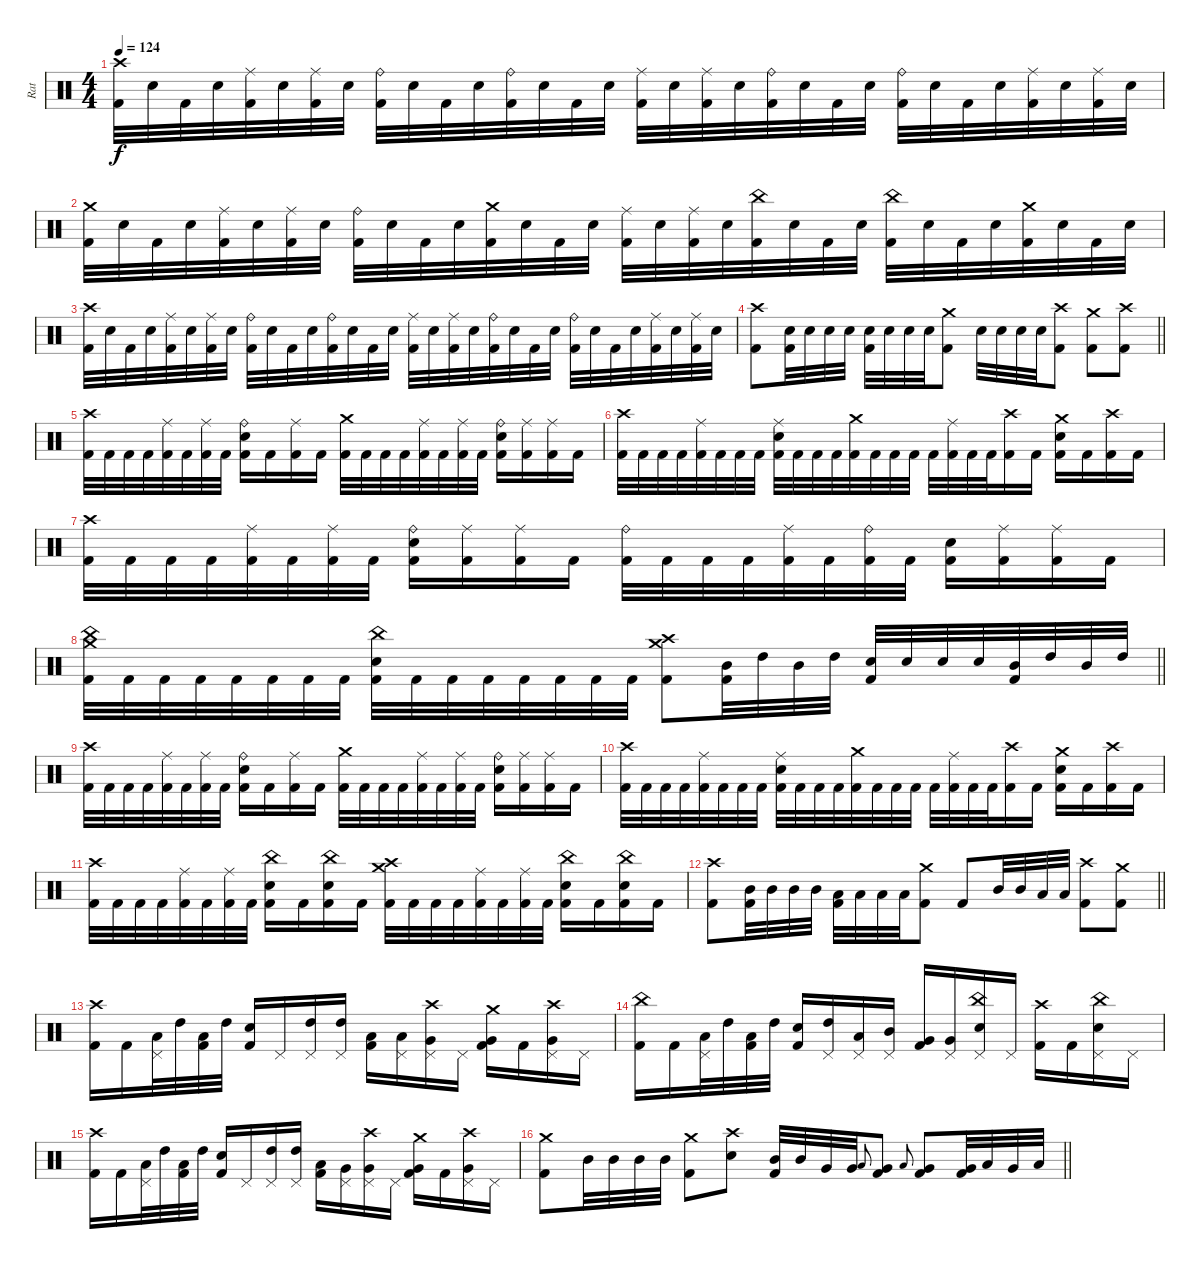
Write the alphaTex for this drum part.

\track ("Rat" "Rat") {instrument percussion}
\staff {score}
\articulation defaults
\ts (4 4)
\tempo 124
\clef neutral
\ks c
("Crash high (hit)" "Kick (hit) 2").32{dy f} "Electric Snare (hit)".32 "Kick (hit) 2".32 "Electric Snare (hit)".32 ("Ride (middle)" "Kick (hit) 2").32 "Electric Snare (hit)".32 ("Ride (middle)" "Kick (hit) 2").32 "Electric Snare (hit)".32 ("Ride (bell)" "Kick (hit) 2").32 "Electric Snare (hit)".32 "Kick (hit) 2".32 "Electric Snare (hit)".32 ("Ride (bell)" "Kick (hit) 2").32 "Electric Snare (hit)".32 "Kick (hit) 2".32 "Electric Snare (hit)".32 ("Ride (middle)" "Kick (hit) 2").32 "Electric Snare (hit)".32 ("Ride (middle)" "Kick (hit) 2").32 "Electric Snare (hit)".32 ("Ride (bell)" "Kick (hit) 2").32 "Electric Snare (hit)".32 "Kick (hit) 2".32 "Electric Snare (hit)".32 ("Ride (bell)" "Kick (hit) 2").32 "Electric Snare (hit)".32 "Kick (hit) 2".32 "Electric Snare (hit)".32 ("Ride (middle)" "Kick (hit) 2").32 "Electric Snare (hit)".32 ("Ride (middle)" "Kick (hit) 2").32 "Electric Snare (hit)".32 |
("Crash medium (hit)" "Kick (hit) 2").32 "Electric Snare (hit)".32 "Kick (hit) 2".32 "Electric Snare (hit)".32 ("Ride (middle)" "Kick (hit) 2").32 "Electric Snare (hit)".32 ("Ride (middle)" "Kick (hit) 2").32 "Electric Snare (hit)".32 ("Ride (bell)" "Kick (hit) 2").32 "Electric Snare (hit)".32 "Kick (hit) 2".32 "Electric Snare (hit)".32 ("Crash medium (hit)" "Kick (hit) 2").32 "Electric Snare (hit)".32 "Kick (hit) 2".32 "Electric Snare (hit)".32 ("Ride (middle)" "Kick (hit) 2").32 "Electric Snare (hit)".32 ("Ride (middle)" "Kick (hit) 2").32 "Electric Snare (hit)".32 ("China (hit)" "Kick (hit) 2").32 "Electric Snare (hit)".32 "Kick (hit) 2".32 "Electric Snare (hit)".32 ("China (hit)" "Kick (hit) 2").32 "Electric Snare (hit)".32 "Kick (hit) 2".32 "Electric Snare (hit)".32 ("Crash medium (hit)" "Kick (hit) 2").32 "Electric Snare (hit)".32 "Kick (hit) 2".32 "Electric Snare (hit)".32 |
("Crash high (hit)" "Kick (hit) 2").32 "Electric Snare (hit)".32 "Kick (hit) 2".32 "Electric Snare (hit)".32 ("Ride (middle)" "Kick (hit) 2").32 "Electric Snare (hit)".32 ("Ride (middle)" "Kick (hit) 2").32 "Electric Snare (hit)".32 ("Ride (bell)" "Kick (hit) 2").32 "Electric Snare (hit)".32 "Kick (hit) 2".32 "Electric Snare (hit)".32 ("Ride (bell)" "Kick (hit) 2").32 "Electric Snare (hit)".32 "Kick (hit) 2".32 "Electric Snare (hit)".32 ("Ride (middle)" "Kick (hit) 2").32 "Electric Snare (hit)".32 ("Ride (middle)" "Kick (hit) 2").32 "Electric Snare (hit)".32 ("Ride (bell)" "Kick (hit) 2").32 "Electric Snare (hit)".32 "Kick (hit) 2".32 "Electric Snare (hit)".32 ("Ride (bell)" "Kick (hit) 2").32 "Electric Snare (hit)".32 "Kick (hit) 2".32 "Electric Snare (hit)".32 ("Ride (middle)" "Kick (hit) 2").32 "Electric Snare (hit)".32 ("Ride (middle)" "Kick (hit) 2").32 "Electric Snare (hit)".32 |
\barLineRight lightlight
("Crash high (hit)" "Kick (hit) 2").8 ("Electric Snare (hit)" "Kick (hit) 2").32 "Electric Snare (hit)".32 "Electric Snare (hit)".32 "Electric Snare (hit)".32 ("Electric Snare (hit)" "Kick (hit) 2").32 "Electric Snare (hit)".32 "Electric Snare (hit)".32 "Electric Snare (hit)".32 ("Crash medium (hit)" "Kick (hit) 2").8 "Electric Snare (hit)".32 "Electric Snare (hit)".32 "Electric Snare (hit)".32 "Electric Snare (hit)".32 ("Crash high (hit)" "Kick (hit) 2").8 ("Crash medium (hit)" "Kick (hit) 2").8 ("Crash high (hit)" "Kick (hit) 2").8 |
("Crash high (hit)" "Kick (hit) 2").32 "Kick (hit) 2".32 "Kick (hit) 2".32 "Kick (hit) 2".32 ("Ride (middle)" "Kick (hit) 2").32 "Kick (hit) 2".32 ("Ride (middle)" "Kick (hit) 2").32 "Kick (hit) 2".32 ("Ride (bell)" "Electric Snare (hit)" "Kick (hit) 2").16 "Kick (hit) 2".16 ("Ride (middle)" "Kick (hit) 2").16 "Kick (hit) 2".16 ("Crash medium (hit)" "Kick (hit) 2").32 "Kick (hit) 2".32 "Kick (hit) 2".32 "Kick (hit) 2".32 ("Ride (middle)" "Kick (hit) 2").32 "Kick (hit) 2".32 ("Ride (middle)" "Kick (hit) 2").32 "Kick (hit) 2".32 ("Ride (bell)" "Electric Snare (hit)" "Kick (hit) 2").16 ("Ride (middle)" "Kick (hit) 2").16 ("Ride (middle)" "Kick (hit) 2").16 "Kick (hit) 2".16 |
("Crash high (hit)" "Kick (hit) 2").32 "Kick (hit) 2".32 "Kick (hit) 2".32 "Kick (hit) 2".32 ("Ride (middle)" "Kick (hit) 2").32 "Kick (hit) 2".32 "Kick (hit) 2".32 "Kick (hit) 2".32 ("Ride (middle)" "Electric Snare (hit)" "Kick (hit) 2").32 "Kick (hit) 2".32 "Kick (hit) 2".32 "Kick (hit) 2".32 ("Crash medium (hit)" "Kick (hit) 2").32 "Kick (hit) 2".32 "Kick (hit) 2".32 "Kick (hit) 2".32 "Kick (hit) 2".32 ("Ride (middle)" "Kick (hit) 2").32 "Kick (hit) 2".32 "Kick (hit) 2".32 ("Crash high (hit)" "Kick (hit) 2").16 "Kick (hit) 2".16 ("Crash medium (hit)" "Electric Snare (hit)" "Kick (hit) 2").16 "Kick (hit) 2".16 ("Crash high (hit)" "Kick (hit) 2").16 "Kick (hit) 2".16 |
("Crash high (hit)" "Kick (hit) 2").32 "Kick (hit) 2".32 "Kick (hit) 2".32 "Kick (hit) 2".32 ("Ride (middle)" "Kick (hit) 2").32 "Kick (hit) 2".32 ("Ride (middle)" "Kick (hit) 2").32 "Kick (hit) 2".32 ("Ride (bell)" "Electric Snare (hit)" "Kick (hit) 2").16 ("Ride (middle)" "Kick (hit) 2").16 ("Ride (middle)" "Kick (hit) 2").16 "Kick (hit) 2".16 ("Ride (bell)" "Kick (hit) 2").32 "Kick (hit) 2".32 "Kick (hit) 2".32 "Kick (hit) 2".32 ("Ride (middle)" "Kick (hit) 2").32 "Kick (hit) 2".32 ("Ride (bell)" "Kick (hit) 2").32 "Kick (hit) 2".32 ("Electric Snare (hit)" "Kick (hit) 2").16 ("Ride (middle)" "Kick (hit) 2").16 ("Ride (middle)" "Kick (hit) 2").16 "Kick (hit) 2".16 |
\barLineRight lightlight
("China (hit)" "Crash medium (hit)" "Kick (hit) 2").32 "Kick (hit) 2".32 "Kick (hit) 2".32 "Kick (hit) 2".32 "Kick (hit) 2".32 "Kick (hit) 2".32 "Kick (hit) 2".32 "Kick (hit) 2".32 ("China (hit)" "Electric Snare (hit)" "Kick (hit) 2").32 "Kick (hit) 2".32 "Kick (hit) 2".32 "Kick (hit) 2".32 "Kick (hit) 2".32 "Kick (hit) 2".32 "Kick (hit) 2".32 "Kick (hit) 2".32 ("Crash high (hit)" "Crash medium (hit)" "Kick (hit) 2").8 ("Mid Tom (hit)" "Kick (hit) 2").32 "High Tom (hit)".32 "Mid Tom (hit)".32 "High Tom (hit)".32 ("Electric Snare (hit)" "Kick (hit) 2").32 "Electric Snare (hit)".32 "Electric Snare (hit)".32 "Electric Snare (hit)".32 ("Mid Tom (hit)" "Kick (hit) 2").32 "High Tom (hit)".32 "Mid Tom (hit)".32 "High Tom (hit)".32 |
("Crash high (hit)" "Kick (hit) 2").32 "Kick (hit) 2".32 "Kick (hit) 2".32 "Kick (hit) 2".32 ("Ride (middle)" "Kick (hit) 2").32 "Kick (hit) 2".32 ("Ride (middle)" "Kick (hit) 2").32 "Kick (hit) 2".32 ("Ride (bell)" "Electric Snare (hit)" "Kick (hit) 2").16 "Kick (hit) 2".16 ("Ride (middle)" "Kick (hit) 2").16 "Kick (hit) 2".16 ("Crash medium (hit)" "Kick (hit) 2").32 "Kick (hit) 2".32 "Kick (hit) 2".32 "Kick (hit) 2".32 ("Ride (middle)" "Kick (hit) 2").32 "Kick (hit) 2".32 ("Ride (middle)" "Kick (hit) 2").32 "Kick (hit) 2".32 ("Ride (bell)" "Electric Snare (hit)" "Kick (hit) 2").16 ("Ride (middle)" "Kick (hit) 2").16 ("Ride (middle)" "Kick (hit) 2").16 "Kick (hit) 2".16 |
("Crash high (hit)" "Kick (hit) 2").32 "Kick (hit) 2".32 "Kick (hit) 2".32 "Kick (hit) 2".32 ("Ride (middle)" "Kick (hit) 2").32 "Kick (hit) 2".32 "Kick (hit) 2".32 "Kick (hit) 2".32 ("Ride (middle)" "Electric Snare (hit)" "Kick (hit) 2").32 "Kick (hit) 2".32 "Kick (hit) 2".32 "Kick (hit) 2".32 ("Crash medium (hit)" "Kick (hit) 2").32 "Kick (hit) 2".32 "Kick (hit) 2".32 "Kick (hit) 2".32 "Kick (hit) 2".32 ("Ride (middle)" "Kick (hit) 2").32 "Kick (hit) 2".32 "Kick (hit) 2".32 ("Crash high (hit)" "Kick (hit) 2").16 "Kick (hit) 2".16 ("Crash medium (hit)" "Electric Snare (hit)" "Kick (hit) 2").16 "Kick (hit) 2".16 ("Crash high (hit)" "Kick (hit) 2").16 "Kick (hit) 2".16 |
("Crash high (hit)" "Kick (hit) 2").32 "Kick (hit) 2".32 "Kick (hit) 2".32 "Kick (hit) 2".32 ("Ride (middle)" "Kick (hit) 2").32 "Kick (hit) 2".32 ("Ride (middle)" "Kick (hit) 2").32 "Kick (hit) 2".32 ("China (hit)" "Electric Snare (hit)" "Kick (hit) 2").16 "Kick (hit) 2".16 ("China (hit)" "Electric Snare (hit)" "Kick (hit) 2").16 "Kick (hit) 2".16 ("Crash high (hit)" "Crash medium (hit)" "Kick (hit) 2").32 "Kick (hit) 2".32 "Kick (hit) 2".32 "Kick (hit) 2".32 ("Ride (middle)" "Kick (hit) 2").32 "Kick (hit) 2".32 ("Ride (middle)" "Kick (hit) 2").32 "Kick (hit) 2".32 ("China (hit)" "Electric Snare (hit)" "Kick (hit) 2").16 "Kick (hit) 2".16 ("China (hit)" "Electric Snare (hit)" "Kick (hit) 2").16 "Kick (hit) 2".16 |
\barLineRight lightlight
("Crash high (hit)" "Kick (hit) 2").8 ("Mid Tom (hit)" "Kick (hit) 2").32 "Mid Tom (hit)".32 "Mid Tom (hit)".32 "Mid Tom (hit)".32 ("Low Tom (hit)" "Kick (hit) 2").32 "Low Tom (hit)".32 "Low Tom (hit)".32 "Low Tom (hit)".32 ("Crash medium (hit)" "Kick (hit) 2").8 "Kick (hit) 2".8 "Mid Tom (hit)".32 "Mid Tom (hit)".32 "Low Tom (hit)".32 "Low Tom (hit)".32 ("Crash high (hit)" "Kick (hit) 2").8 ("Crash medium (hit)" "Kick (hit) 2").8 |
("Crash high (hit)" "Kick (hit) 2").16 "Kick (hit) 2".16 ("Low Tom (hit)" "Pedal Hi-Hat (hit)").32 "High Tom (hit)".32 ("Low Tom (hit)" "Kick (hit) 2").32 "High Tom (hit)".32 ("Electric Snare (hit)" "Kick (hit) 2").16 "Pedal Hi-Hat (hit)".16 ("High Tom (hit)" "Pedal Hi-Hat (hit)").16 ("High Tom (hit)" "Pedal Hi-Hat (hit)").16 ("Low Tom (hit)" "Kick (hit) 2").16 ("Low Tom (hit)" "Pedal Hi-Hat (hit)").16 ("Crash high (hit)" "Very Low Tom (hit)" "Pedal Hi-Hat (hit)").16 "Pedal Hi-Hat (hit)".16 ("Crash medium (hit)" "Very Low Tom (hit)" "Kick (hit) 2").16 "Kick (hit) 2".16 ("Crash high (hit)" "Very Low Tom (hit)" "Pedal Hi-Hat (hit)").16 "Pedal Hi-Hat (hit)".16 |
("China (hit)" "Kick (hit) 2").16 "Kick (hit) 2".16 ("Low Tom (hit)" "Pedal Hi-Hat (hit)").32 "High Tom (hit)".32 ("Low Tom (hit)" "Kick (hit) 2").32 "High Tom (hit)".32 ("Electric Snare (hit)" "Kick (hit) 2").16 ("High Tom (hit)" "Pedal Hi-Hat (hit)").16 ("Low Tom (hit)" "Pedal Hi-Hat (hit)").16 ("Mid Tom (hit)" "Pedal Hi-Hat (hit)").16 ("Very Low Tom (hit)" "Kick (hit) 2").16 ("Very Low Tom (hit)" "Pedal Hi-Hat (hit)").16 ("China (hit)" "Electric Snare (hit)" "Pedal Hi-Hat (hit)").16 "Pedal Hi-Hat (hit)".16 ("Crash high (hit)" "Kick (hit) 2").16 "Kick (hit) 2".16 ("China (hit)" "Electric Snare (hit)" "Pedal Hi-Hat (hit)").16 "Pedal Hi-Hat (hit)".16 |
("Crash high (hit)" "Kick (hit) 2").16 "Kick (hit) 2".16 ("Low Tom (hit)" "Pedal Hi-Hat (hit)").32 "High Tom (hit)".32 ("Low Tom (hit)" "Kick (hit) 2").32 "High Tom (hit)".32 ("Electric Snare (hit)" "Kick (hit) 2").16 "Pedal Hi-Hat (hit)".16 ("High Tom (hit)" "Pedal Hi-Hat (hit)").16 ("High Tom (hit)" "Pedal Hi-Hat (hit)").16 ("Low Tom (hit)" "Kick (hit) 2").16 ("Very Low Tom (hit)" "Pedal Hi-Hat (hit)").16 ("Crash high (hit)" "Very Low Tom (hit)" "Pedal Hi-Hat (hit)").16 "Pedal Hi-Hat (hit)".16 ("Crash medium (hit)" "Very Low Tom (hit)" "Kick (hit) 2").16 "Kick (hit) 2".16 ("Crash high (hit)" "Very Low Tom (hit)" "Pedal Hi-Hat (hit)").16 "Pedal Hi-Hat (hit)".16 |
\barLineRight lightlight
("Crash medium (hit)" "Kick (hit) 2").8 "Mid Tom (hit)".32 "Mid Tom (hit)".32 "Mid Tom (hit)".32 "Mid Tom (hit)".32 ("Crash medium (hit)" "Kick (hit) 2").8 ("Crash high (hit)" "Electric Snare (hit)").8 ("Mid Tom (hit)" "Kick (hit) 2").32 "Mid Tom (hit)".32 "Very Low Tom (hit)".32 "Very Low Tom (hit)".32 "Low Tom (hit)".8{gr onbeat} ("Very Low Tom (hit)" "Kick (hit) 2").8 "Low Tom (hit)".8{gr onbeat} ("Very Low Tom (hit)" "Kick (hit) 2").8 ("Very Low Tom (hit)" "Kick (hit) 2").32 "Low Tom (hit)".32 "Very Low Tom (hit)".32 "Low Tom (hit)".32
